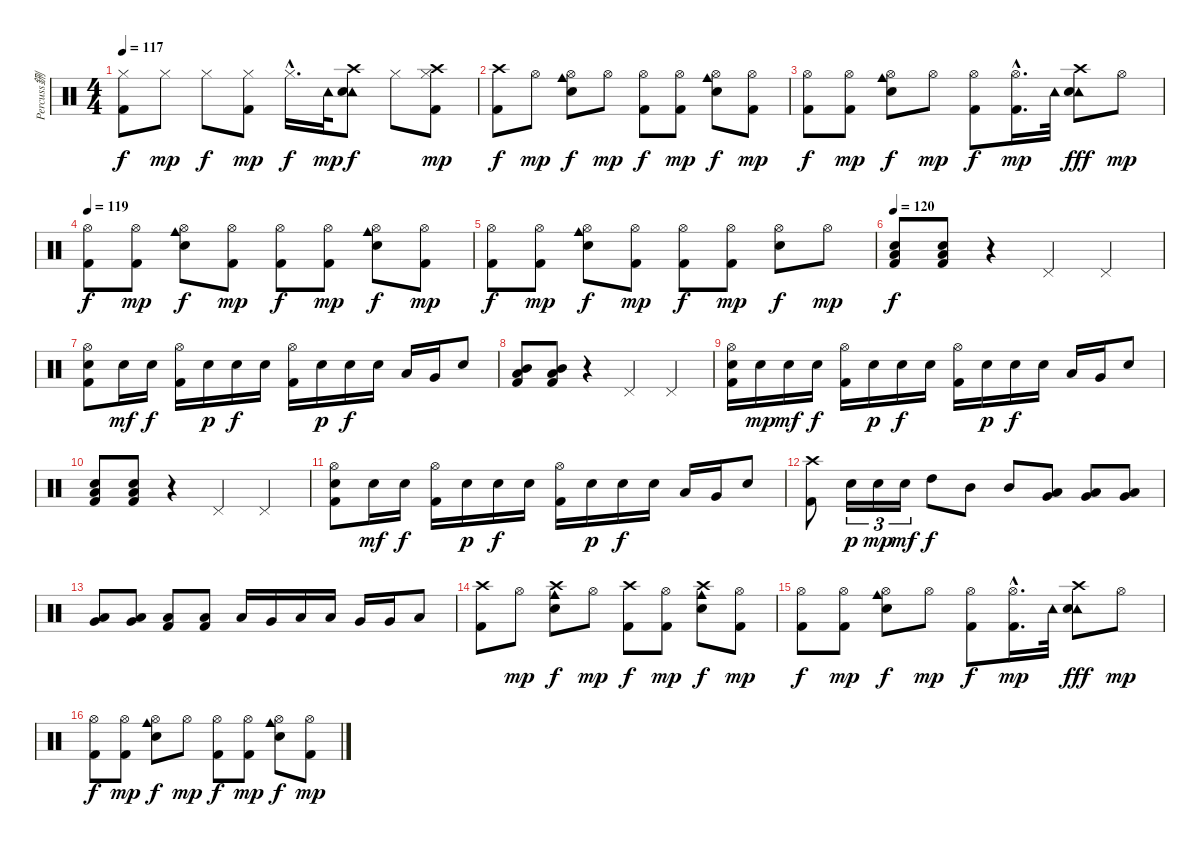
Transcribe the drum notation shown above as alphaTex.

\track ("Percuss鉶" "Percuss鉶") {instrument percussion}
\staff {score}
\articulation defaults
\ts (4 4)
\tempo 117
\clef neutral
\ks c
("Hi-Hat (closed)" "Kick (hit) 2").8{dy f} "Hi-Hat (closed)".8{dy mp} "Hi-Hat (closed)".8{dy f} ("Hi-Hat (closed)" "Kick (hit) 2").8{dy mp} "Hi-Hat (closed)"{hac}.16{d dy f} "Tambourine (hit)".32{dy mp} ("Crash high (hit)" "Tambourine (hit)" "Snare (hit) 2").8{dy f} "Hi-Hat (closed)".8 ("Crash high (hit)" "Hi-Hat (closed)" "Kick (hit) 2").8{dy mp} |
("Crash high (hit)" "Kick (hit) 2").8{dy f} "Hi-Hat (open)".8{dy mp} ("Cowbell medium (hit)" "Hi-Hat (open)" "Snare (hit) 2").8{dy f} "Hi-Hat (open)".8{dy mp} ("Hi-Hat (open)" "Kick (hit) 2").8{dy f} ("Hi-Hat (open)" "Kick (hit) 2").8{dy mp} ("Cowbell medium (hit)" "Hi-Hat (open)" "Snare (hit) 2").8{dy f} ("Hi-Hat (open)" "Kick (hit) 2").8{dy mp} |
("Hi-Hat (open)" "Kick (hit) 2").8{dy f} ("Hi-Hat (open)" "Kick (hit) 2").8{dy mp} ("Cowbell medium (hit)" "Hi-Hat (open)" "Snare (hit) 2").8{dy f} "Hi-Hat (open)".8{dy mp} ("Hi-Hat (open)" "Kick (hit) 2").8{dy f} ("Hi-Hat (open)"{hac} "Kick (hit) 2"{hac}).16{d dy mp} "Tambourine (hit)".32 ("Crash high (hit)" "Tambourine (hit)" "Snare (hit) 2").8{dy fff} "Hi-Hat (open)".8{dy mp} |
\tempo 119
("Hi-Hat (open)" "Kick (hit) 2").8{dy f} ("Hi-Hat (open)" "Kick (hit) 2").8{dy mp} ("Cowbell medium (hit)" "Hi-Hat (open)" "Snare (hit) 2").8{dy f} ("Hi-Hat (open)" "Kick (hit) 2").8{dy mp} ("Hi-Hat (open)" "Kick (hit) 2").8{dy f} ("Hi-Hat (open)" "Kick (hit) 2").8{dy mp} ("Cowbell medium (hit)" "Hi-Hat (open)" "Snare (hit) 2").8{dy f} ("Hi-Hat (open)" "Kick (hit) 2").8{dy mp} |
("Hi-Hat (open)" "Kick (hit) 2").8{dy f} ("Hi-Hat (open)" "Kick (hit) 2").8{dy mp} ("Cowbell medium (hit)" "Hi-Hat (open)" "Snare (hit) 2").8{dy f} ("Hi-Hat (open)" "Kick (hit) 2").8{dy mp} ("Hi-Hat (open)" "Kick (hit) 2").8{dy f} ("Hi-Hat (open)" "Kick (hit) 2").8{dy mp} ("Hi-Hat (open)" "Snare (hit) 2").8{dy f} "Hi-Hat (open)".8{dy mp} |
\tempo 120
("Low Tom (hit)" "Snare (hit) 2" "Kick (hit) 2").8{dy f} ("Low Tom (hit)" "Snare (hit) 2" "Kick (hit) 2").8 r.4 "Pedal Hi-Hat (hit)".4 "Pedal Hi-Hat (hit)".4 |
("Hi-Hat (open)" "Snare (hit) 2" "Kick (hit) 2").8 "Snare (hit) 2".16{dy mf} "Snare (hit) 2".16{dy f} ("Hi-Hat (open)" "Kick (hit) 2").16 "Snare (hit) 2".16{dy p} "Snare (hit) 2".16{dy f} "Snare (hit) 2".16 ("Hi-Hat (open)" "Kick (hit) 2").16 "Snare (hit) 2".16{dy p} "Snare (hit) 2".16{dy f} "Snare (hit) 2".16 "Low Tom (hit)".16 "Very Low Tom (hit)".16 "Snare (hit) 2".8 |
("Mid Tom (hit)" "Low Tom (hit)" "Kick (hit) 2").8 ("Mid Tom (hit)" "Low Tom (hit)" "Kick (hit) 2").8 r.4 "Pedal Hi-Hat (hit)".4 "Pedal Hi-Hat (hit)".4 |
("Hi-Hat (open)" "Snare (hit) 2" "Kick (hit) 2").16 "Snare (hit) 2".16{dy mp} "Snare (hit) 2".16{dy mf} "Snare (hit) 2".16{dy f} ("Hi-Hat (open)" "Kick (hit) 2").16 "Snare (hit) 2".16{dy p} "Snare (hit) 2".16{dy f} "Snare (hit) 2".16 ("Hi-Hat (open)" "Kick (hit) 2").16 "Snare (hit) 2".16{dy p} "Snare (hit) 2".16{dy f} "Snare (hit) 2".16 "Low Tom (hit)".16 "Very Low Tom (hit)".16 "Snare (hit) 2".8 |
("Low Tom (hit)" "Snare (hit) 2" "Kick (hit) 2").8 ("Low Tom (hit)" "Snare (hit) 2" "Kick (hit) 2").8 r.4 "Pedal Hi-Hat (hit)".4 "Pedal Hi-Hat (hit)".4 |
("Hi-Hat (open)" "Snare (hit) 2" "Kick (hit) 2").8 "Snare (hit) 2".16{dy mf} "Snare (hit) 2".16{dy f} ("Hi-Hat (open)" "Kick (hit) 2").16 "Snare (hit) 2".16{dy p} "Snare (hit) 2".16{dy f} "Snare (hit) 2".16 ("Hi-Hat (open)" "Kick (hit) 2").16 "Snare (hit) 2".16{dy p} "Snare (hit) 2".16{dy f} "Snare (hit) 2".16 "Low Tom (hit)".16 "Very Low Tom (hit)".16 "Snare (hit) 2".8 |
("Crash high (hit)" "Kick (hit) 2").8 "Snare (hit) 2".16{tu (3 2) dy p} "Snare (hit) 2".16{tu (3 2) dy mp} "Snare (hit) 2".16{tu (3 2) dy mf} "High Tom (hit)".8{dy f} "Mid Tom (hit)".8 "Mid Tom (hit)".8 ("Low Tom (hit)" "Very Low Tom (hit)").8 ("Low Tom (hit)" "Very Low Tom (hit)").8 ("Low Floor Tom (hit)" "Very Low Tom (hit)").8 |
("Very Low Tom (hit)" "Low Floor Tom (hit)").8 ("Very Low Tom (hit)" "Low Floor Tom (hit)").8 ("Low Floor Tom (hit)" "Kick (hit) 2").8 ("Low Floor Tom (hit)" "Kick (hit) 2").8 "Low Tom (hit)".16 "Very Low Tom (hit)".16 "Low Floor Tom (hit)".16 "Low Tom (hit)".16 "Very Low Tom (hit)".16 "Very Low Tom (hit)".16 "Low Floor Tom (hit)".8 |
("Crash high (hit)" "Kick (hit) 2").8 "Hi-Hat (open)".8{dy mp} ("Cowbell medium (hit)" "Crash high (hit)" "Snare (hit) 2").8{dy f} "Hi-Hat (open)".8{dy mp} ("Crash high (hit)" "Kick (hit) 2").8{dy f} ("Hi-Hat (open)" "Kick (hit) 2").8{dy mp} ("Cowbell medium (hit)" "Crash high (hit)" "Snare (hit) 2").8{dy f} ("Hi-Hat (open)" "Kick (hit) 2").8{dy mp} |
("Hi-Hat (open)" "Kick (hit) 2").8{dy f} ("Hi-Hat (open)" "Kick (hit) 2").8{dy mp} ("Cowbell medium (hit)" "Hi-Hat (open)" "Snare (hit) 2").8{dy f} "Hi-Hat (open)".8{dy mp} ("Hi-Hat (open)" "Kick (hit) 2").8{dy f} ("Hi-Hat (open)"{hac} "Kick (hit) 2"{hac}).16{d dy mp} "Tambourine (hit)".32 ("Crash high (hit)" "Tambourine (hit)" "Snare (hit) 2").8{dy fff} "Hi-Hat (open)".8{dy mp} |
("Hi-Hat (open)" "Kick (hit) 2").8{dy f} ("Hi-Hat (open)" "Kick (hit) 2").8{dy mp} ("Cowbell medium (hit)" "Hi-Hat (open)" "Snare (hit) 2").8{dy f} "Hi-Hat (open)".8{dy mp} ("Hi-Hat (open)" "Kick (hit) 2").8{dy f} ("Hi-Hat (open)" "Kick (hit) 2").8{dy mp} ("Cowbell medium (hit)" "Hi-Hat (open)" "Snare (hit) 2").8{dy f} ("Hi-Hat (open)" "Kick (hit) 2").8{dy mp}
